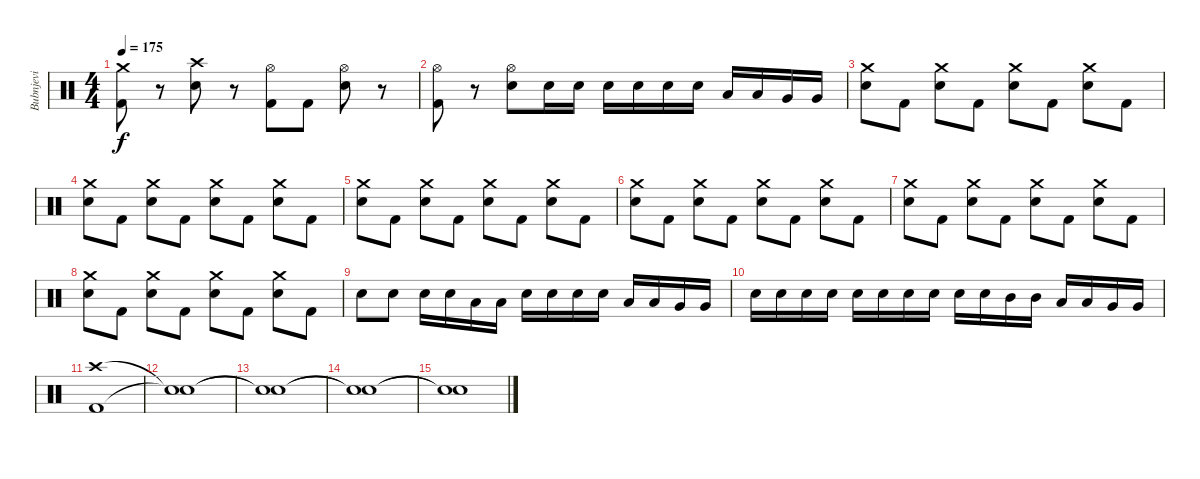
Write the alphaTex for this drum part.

\track ("Bubnjevi" "Bubnjevi") {instrument percussion}
\staff {score}
\articulation defaults
\ts (4 4)
\tempo 175
\clef neutral
\ks c
("Crash medium (hit)" "Kick (hit) 2").8{dy f} r.8 ("Crash high (hit)" "Electric Snare (hit)").8 r.8 ("Hi-Hat (open)" "Kick (hit) 2").8 "Kick (hit) 2".8 ("Hi-Hat (open)" "Electric Snare (hit)").8 r.8 |
("Hi-Hat (open)" "Kick (hit) 2").8 r.8 ("Hi-Hat (open)" "Electric Snare (hit)").8 "Electric Snare (hit)".16 "Electric Snare (hit)".16 "Electric Snare (hit)".16 "Electric Snare (hit)".16 "Electric Snare (hit)".16 "Electric Snare (hit)".16 "Low Tom (hit)".16 "Low Tom (hit)".16 "Very Low Tom (hit)".16 "Very Low Tom (hit)".16 |
("Crash medium (hit)" "Electric Snare (hit)").8 "Kick (hit) 2".8 ("Crash medium (hit)" "Electric Snare (hit)").8 "Kick (hit) 2".8 ("Crash medium (hit)" "Electric Snare (hit)").8 "Kick (hit) 2".8 ("Crash medium (hit)" "Electric Snare (hit)").8 "Kick (hit) 2".8 |
("Crash medium (hit)" "Electric Snare (hit)").8 "Kick (hit) 2".8 ("Crash medium (hit)" "Electric Snare (hit)").8 "Kick (hit) 2".8 ("Crash medium (hit)" "Electric Snare (hit)").8 "Kick (hit) 2".8 ("Crash medium (hit)" "Electric Snare (hit)").8 "Kick (hit) 2".8 |
("Crash medium (hit)" "Electric Snare (hit)").8 "Kick (hit) 2".8 ("Crash medium (hit)" "Electric Snare (hit)").8 "Kick (hit) 2".8 ("Crash medium (hit)" "Electric Snare (hit)").8 "Kick (hit) 2".8 ("Crash medium (hit)" "Electric Snare (hit)").8 "Kick (hit) 2".8 |
("Crash medium (hit)" "Electric Snare (hit)").8 "Kick (hit) 2".8 ("Crash medium (hit)" "Electric Snare (hit)").8 "Kick (hit) 2".8 ("Crash medium (hit)" "Electric Snare (hit)").8 "Kick (hit) 2".8 ("Crash medium (hit)" "Electric Snare (hit)").8 "Kick (hit) 2".8 |
("Crash medium (hit)" "Electric Snare (hit)").8 "Kick (hit) 2".8 ("Crash medium (hit)" "Electric Snare (hit)").8 "Kick (hit) 2".8 ("Crash medium (hit)" "Electric Snare (hit)").8 "Kick (hit) 2".8 ("Crash medium (hit)" "Electric Snare (hit)").8 "Kick (hit) 2".8 |
("Crash medium (hit)" "Electric Snare (hit)").8 "Kick (hit) 2".8 ("Crash medium (hit)" "Electric Snare (hit)").8 "Kick (hit) 2".8 ("Crash medium (hit)" "Electric Snare (hit)").8 "Kick (hit) 2".8 ("Crash medium (hit)" "Electric Snare (hit)").8 "Kick (hit) 2".8 |
"Electric Snare (hit)".8 "Electric Snare (hit)".8 "Electric Snare (hit)".16 "Electric Snare (hit)".16 "Low Tom (hit)".16 "Low Tom (hit)".16 "Electric Snare (hit)".16 "Electric Snare (hit)".16 "Electric Snare (hit)".16 "Electric Snare (hit)".16 "Low Tom (hit)".16 "Low Tom (hit)".16 "Very Low Tom (hit)".16 "Very Low Tom (hit)".16 |
"Electric Snare (hit)".16 "Electric Snare (hit)".16 "Electric Snare (hit)".16 "Electric Snare (hit)".16 "Electric Snare (hit)".16 "Electric Snare (hit)".16 "Electric Snare (hit)".16 "Electric Snare (hit)".16 "Electric Snare (hit)".16 "Electric Snare (hit)".16 "Mid Tom (hit)".16 "Mid Tom (hit)".16 "Low Tom (hit)".16 "Low Tom (hit)".16 "Very Low Tom (hit)".16 "Very Low Tom (hit)".16 |
("Crash high (hit)" "Kick (hit) 2").1 |
("Snare (hit)"{t} "Snare (hit)"{t}).1 |
("Snare (hit)"{t} "Snare (hit)"{t}).1 |
("Snare (hit)"{t} "Snare (hit)"{t}).1 |
("Snare (hit)"{t} "Snare (hit)"{t}).1
